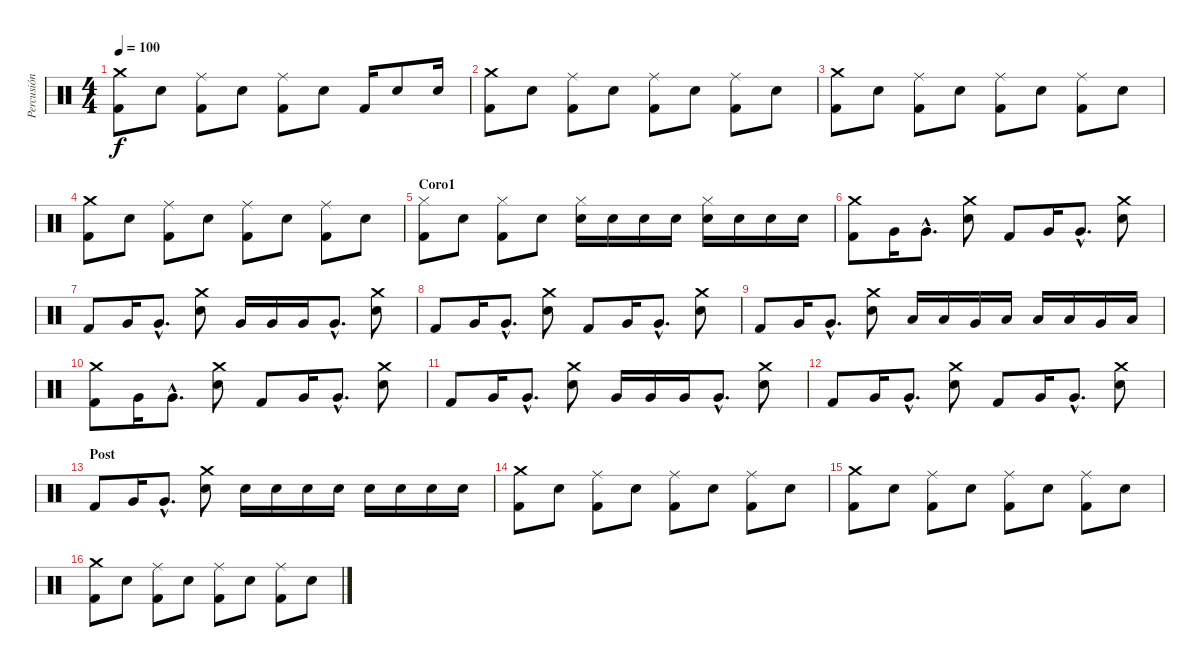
\track ("Percusión" "Percusión") {instrument percussion}
\staff {score}
\articulation defaults
\ts (4 4)
\tempo 100
\clef neutral
\ks c
("Crash medium (hit)" "Kick (hit) 2").8{dy f} "Snare (hit) 2".8 ("Ride (middle)" "Kick (hit) 2").8 "Snare (hit) 2".8 ("Ride (middle)" "Kick (hit) 2").8 "Snare (hit) 2".8 "Kick (hit) 2".16 "Snare (hit) 2".8 "Snare (hit) 2".16 |
("Crash medium (hit)" "Kick (hit) 2").8 "Snare (hit) 2".8 ("Ride (middle)" "Kick (hit) 2").8 "Snare (hit) 2".8 ("Ride (middle)" "Kick (hit) 2").8 "Snare (hit) 2".8 ("Ride (middle)" "Kick (hit) 2").8 "Snare (hit) 2".8 |
("Crash medium (hit)" "Kick (hit) 2").8 "Snare (hit) 2".8 ("Ride (middle)" "Kick (hit) 2").8 "Snare (hit) 2".8 ("Ride (middle)" "Kick (hit) 2").8 "Snare (hit) 2".8 ("Ride (middle)" "Kick (hit) 2").8 "Snare (hit) 2".8 |
("Crash medium (hit)" "Kick (hit) 2").8 "Snare (hit) 2".8 ("Ride (middle)" "Kick (hit) 2").8 "Snare (hit) 2".8 ("Ride (middle)" "Kick (hit) 2").8 "Snare (hit) 2".8 ("Kick (hit) 2" "Ride (middle)").8 "Snare (hit) 2".8 |
\section ("" "Coro1")
("Hi-Hat (closed)" "Kick (hit) 2").8 "Snare (hit) 2".8 ("Kick (hit) 2" "Hi-Hat (closed)").8 "Snare (hit) 2".8 ("Hi-Hat (closed)" "Snare (hit) 2").16 "Snare (hit) 2".16 "Snare (hit) 2".16 "Snare (hit) 2".16 ("Hi-Hat (closed)" "Snare (hit) 2").16 "Snare (hit) 2".16 "Snare (hit) 2".16 "Snare (hit) 2".16 |
("Crash medium (hit)" "Kick (hit) 2").8 "Very Low Tom (hit)".16 "Very Low Tom (hit)"{hac}.8{d} ("Crash medium (hit)" "Snare (hit) 2").8 "Kick (hit) 2".8 "Very Low Tom (hit)".16 "Very Low Tom (hit)"{hac}.8{d} ("Crash medium (hit)" "Snare (hit) 2").8 |
"Kick (hit) 2".8 "Very Low Tom (hit)".16 "Very Low Tom (hit)"{hac}.8{d} ("Crash medium (hit)" "Snare (hit) 2").8 "Very Low Tom (hit)".16 "Very Low Tom (hit)".16 "Very Low Tom (hit)".16 "Very Low Tom (hit)"{hac}.8{d} ("Crash medium (hit)" "Snare (hit) 2").8 |
"Kick (hit) 2".8 "Very Low Tom (hit)".16 "Very Low Tom (hit)"{hac}.8{d} ("Crash medium (hit)" "Snare (hit) 2").8 "Kick (hit) 2".8 "Very Low Tom (hit)".16 "Very Low Tom (hit)"{hac}.8{d} ("Crash medium (hit)" "Snare (hit) 2").8 |
"Kick (hit) 2".8 "Very Low Tom (hit)".16 "Very Low Tom (hit)"{hac}.8{d} ("Crash medium (hit)" "Snare (hit) 2").8 "Low Tom (hit)".16 "Low Tom (hit)".16 "Very Low Tom (hit)".16 "Low Floor Tom (hit)".16 "Low Tom (hit)".16 "Low Tom (hit)".16 "Very Low Tom (hit)".16 "Low Floor Tom (hit)".16 |
("Crash medium (hit)" "Kick (hit) 2").8 "Very Low Tom (hit)".16 "Very Low Tom (hit)"{hac}.8{d} ("Crash medium (hit)" "Snare (hit) 2").8 "Kick (hit) 2".8 "Very Low Tom (hit)".16 "Very Low Tom (hit)"{hac}.8{d} ("Crash medium (hit)" "Snare (hit) 2").8 |
"Kick (hit) 2".8 "Very Low Tom (hit)".16 "Very Low Tom (hit)"{hac}.8{d} ("Crash medium (hit)" "Snare (hit) 2").8 "Very Low Tom (hit)".16 "Very Low Tom (hit)".16 "Very Low Tom (hit)".16 "Very Low Tom (hit)"{hac}.8{d} ("Crash medium (hit)" "Snare (hit) 2").8 |
"Kick (hit) 2".8 "Very Low Tom (hit)".16 "Very Low Tom (hit)"{hac}.8{d} ("Crash medium (hit)" "Snare (hit) 2").8 "Kick (hit) 2".8 "Very Low Tom (hit)".16 "Very Low Tom (hit)"{hac}.8{d} ("Crash medium (hit)" "Snare (hit) 2").8 |
\section ("" "Post")
"Kick (hit) 2".8 "Very Low Tom (hit)".16 "Very Low Tom (hit)"{hac}.8{d} ("Crash medium (hit)" "Snare (hit) 2").8 "Snare (hit) 2".16 "Snare (hit) 2".16 "Snare (hit) 2".16 "Snare (hit) 2".16 "Snare (hit) 2".16 "Snare (hit) 2".16 "Snare (hit) 2".16 "Snare (hit) 2".16 |
("Crash medium (hit)" "Kick (hit) 2").8 "Snare (hit) 2".8 ("Ride (middle)" "Kick (hit) 2").8 "Snare (hit) 2".8 ("Ride (middle)" "Kick (hit) 2").8 "Snare (hit) 2".8 ("Ride (middle)" "Kick (hit) 2").8 "Snare (hit) 2".8 |
("Crash medium (hit)" "Kick (hit) 2").8 "Snare (hit) 2".8 ("Ride (middle)" "Kick (hit) 2").8 "Snare (hit) 2".8 ("Ride (middle)" "Kick (hit) 2").8 "Snare (hit) 2".8 ("Ride (middle)" "Kick (hit) 2").8 "Snare (hit) 2".8 |
("Crash medium (hit)" "Kick (hit) 2").8 "Snare (hit) 2".8 ("Ride (middle)" "Kick (hit) 2").8 "Snare (hit) 2".8 ("Ride (middle)" "Kick (hit) 2").8 "Snare (hit) 2".8 ("Ride (middle)" "Kick (hit) 2").8 "Snare (hit) 2".8
